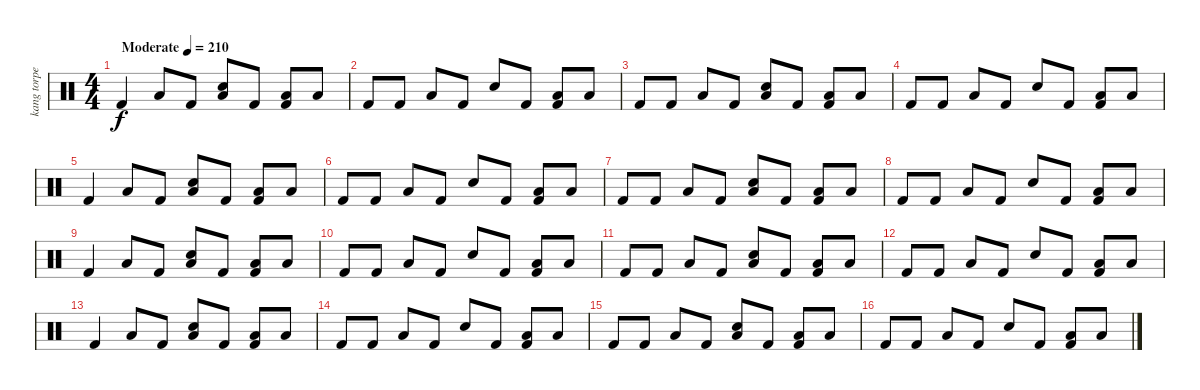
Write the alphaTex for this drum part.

\track ("kang torpey" "kang torpe") {instrument percussion}
\staff {score}
\articulation defaults
\ts (4 4)
\tempo (210 "Moderate")
\clef neutral
\ks c "Kick (hit) 2".4{dy f} "Low Floor Tom (hit)".8 "Kick (hit) 2".8
("Low Floor Tom (hit)" "Electric Snare (hit)").8 "Kick (hit) 2".8 ("Low Floor Tom (hit)" "Kick (hit) 2").8 "Low Floor Tom (hit)".8 |
"Kick (hit) 2".8 "Kick (hit) 2".8 "Low Floor Tom (hit)".8 "Kick (hit) 2".8 "Electric Snare (hit)".8 "Kick (hit) 2".8 ("Low Floor Tom (hit)" "Kick (hit) 2").8 "Low Floor Tom (hit)".8 |
"Kick (hit) 2".8 "Kick (hit) 2".8 "Low Floor Tom (hit)".8 "Kick (hit) 2".8 ("Low Floor Tom (hit)" "Electric Snare (hit)").8 "Kick (hit) 2".8 ("Low Floor Tom (hit)" "Kick (hit) 2").8 "Low Floor Tom (hit)".8 |
"Kick (hit) 2".8 "Kick (hit) 2".8 "Low Floor Tom (hit)".8 "Kick (hit) 2".8 "Electric Snare (hit)".8 "Kick (hit) 2".8 ("Low Floor Tom (hit)" "Kick (hit) 2").8 "Low Floor Tom (hit)".8 |
"Kick (hit) 2".4 "Low Floor Tom (hit)".8 "Kick (hit) 2".8 ("Low Floor Tom (hit)" "Electric Snare (hit)").8 "Kick (hit) 2".8 ("Low Floor Tom (hit)" "Kick (hit) 2").8 "Low Floor Tom (hit)".8 |
"Kick (hit) 2".8 "Kick (hit) 2".8 "Low Floor Tom (hit)".8 "Kick (hit) 2".8 "Electric Snare (hit)".8 "Kick (hit) 2".8 ("Low Floor Tom (hit)" "Kick (hit) 2").8 "Low Floor Tom (hit)".8 |
"Kick (hit) 2".8 "Kick (hit) 2".8 "Low Floor Tom (hit)".8 "Kick (hit) 2".8 ("Low Floor Tom (hit)" "Electric Snare (hit)").8 "Kick (hit) 2".8 ("Low Floor Tom (hit)" "Kick (hit) 2").8 "Low Floor Tom (hit)".8 |
"Kick (hit) 2".8 "Kick (hit) 2".8 "Low Floor Tom (hit)".8 "Kick (hit) 2".8 "Electric Snare (hit)".8 "Kick (hit) 2".8 ("Low Floor Tom (hit)" "Kick (hit) 2").8 "Low Floor Tom (hit)".8 |
"Kick (hit) 2".4 "Low Floor Tom (hit)".8 "Kick (hit) 2".8 ("Low Floor Tom (hit)" "Electric Snare (hit)").8 "Kick (hit) 2".8 ("Low Floor Tom (hit)" "Kick (hit) 2").8 "Low Floor Tom (hit)".8 |
"Kick (hit) 2".8 "Kick (hit) 2".8 "Low Floor Tom (hit)".8 "Kick (hit) 2".8 "Electric Snare (hit)".8 "Kick (hit) 2".8 ("Low Floor Tom (hit)" "Kick (hit) 2").8 "Low Floor Tom (hit)".8 |
"Kick (hit) 2".8 "Kick (hit) 2".8 "Low Floor Tom (hit)".8 "Kick (hit) 2".8 ("Low Floor Tom (hit)" "Electric Snare (hit)").8 "Kick (hit) 2".8 ("Low Floor Tom (hit)" "Kick (hit) 2").8 "Low Floor Tom (hit)".8 |
"Kick (hit) 2".8 "Kick (hit) 2".8 "Low Floor Tom (hit)".8 "Kick (hit) 2".8 "Electric Snare (hit)".8 "Kick (hit) 2".8 ("Low Floor Tom (hit)" "Kick (hit) 2").8 "Low Floor Tom (hit)".8 |
"Kick (hit) 2".4 "Low Floor Tom (hit)".8 "Kick (hit) 2".8 ("Low Floor Tom (hit)" "Electric Snare (hit)").8 "Kick (hit) 2".8 ("Low Floor Tom (hit)" "Kick (hit) 2").8 "Low Floor Tom (hit)".8 |
"Kick (hit) 2".8 "Kick (hit) 2".8 "Low Floor Tom (hit)".8 "Kick (hit) 2".8 "Electric Snare (hit)".8 "Kick (hit) 2".8 ("Low Floor Tom (hit)" "Kick (hit) 2").8 "Low Floor Tom (hit)".8 |
"Kick (hit) 2".8 "Kick (hit) 2".8 "Low Floor Tom (hit)".8 "Kick (hit) 2".8 ("Low Floor Tom (hit)" "Electric Snare (hit)").8 "Kick (hit) 2".8 ("Low Floor Tom (hit)" "Kick (hit) 2").8 "Low Floor Tom (hit)".8 |
"Kick (hit) 2".8 "Kick (hit) 2".8 "Low Floor Tom (hit)".8 "Kick (hit) 2".8 "Electric Snare (hit)".8 "Kick (hit) 2".8 ("Low Floor Tom (hit)" "Kick (hit) 2").8 "Low Floor Tom (hit)".8
